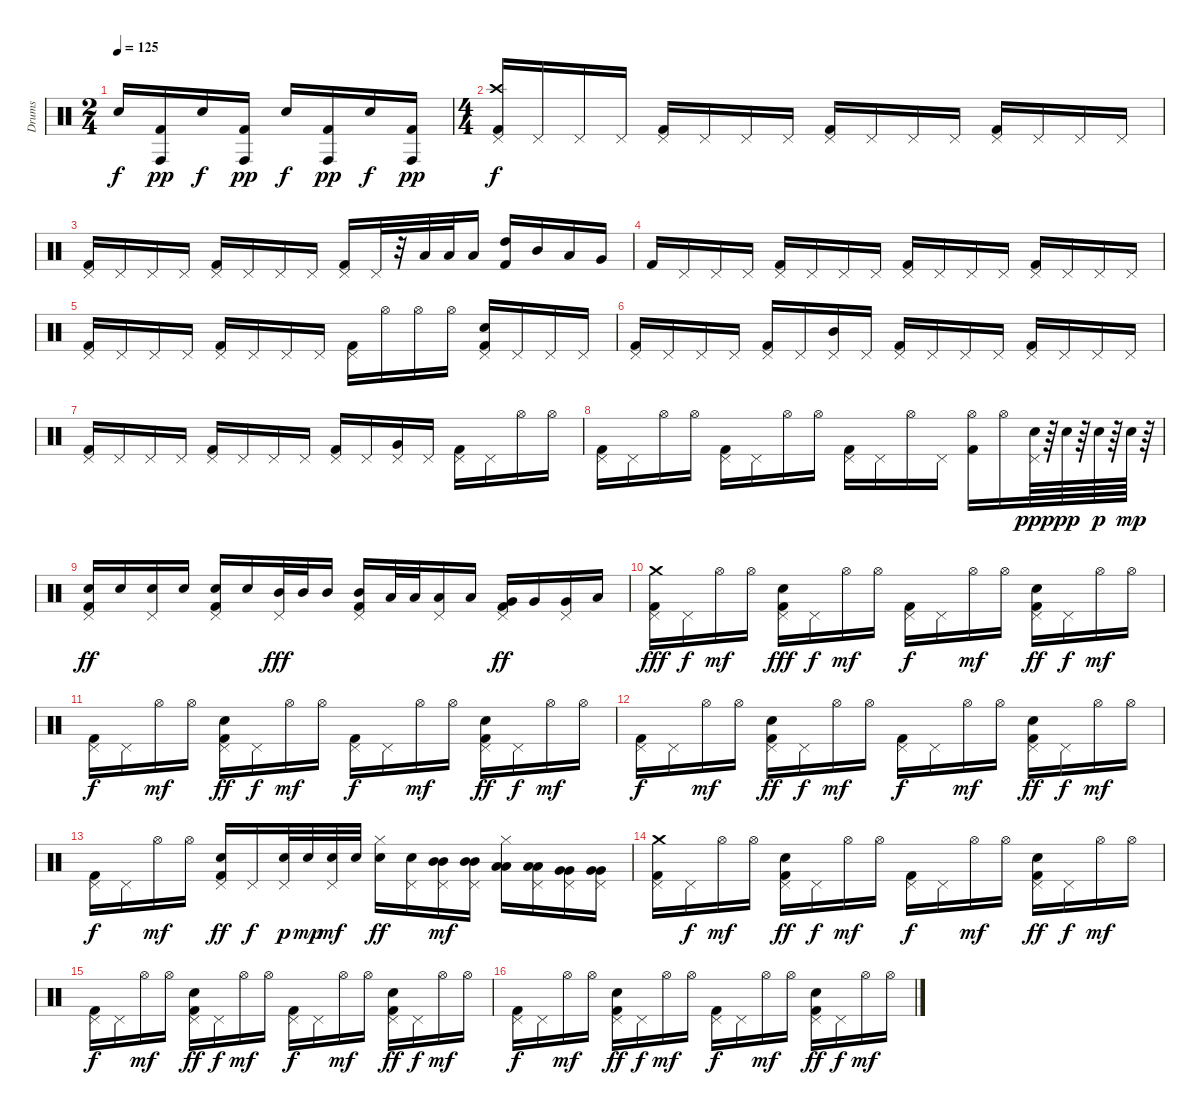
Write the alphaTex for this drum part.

\track ("Drums" "Drums") {instrument percussion}
\staff {score}
\articulation defaults
\ts (2 4)
\tempo 125
\clef neutral
\ks c "Electric Snare (hit)".16{dy f balance 8}
("Conga high (hit)" "Kick (hit) 2").16{dy pp balance 16} "Electric Snare (hit)".16{dy f balance 8} ("Conga high (hit)" "Kick (hit) 2").16{dy pp balance 16} "Electric Snare (hit)".16{dy f balance 8} ("Conga high (hit)" "Kick (hit) 2").16{dy pp balance 16} "Electric Snare (hit)".16{dy f balance 8} ("Conga high (hit)" "Kick (hit) 2").16{dy pp balance 16} |
\ts (4 4)
("Crash high (hit)" "Pedal Hi-Hat (hit)" "Kick (hit) 2").16{dy f balance 8} "Pedal Hi-Hat (hit)".16 "Pedal Hi-Hat (hit)".16 "Pedal Hi-Hat (hit)".16 ("Pedal Hi-Hat (hit)" "Kick (hit) 2").16 "Pedal Hi-Hat (hit)".16 "Pedal Hi-Hat (hit)".16 "Pedal Hi-Hat (hit)".16 ("Pedal Hi-Hat (hit)" "Kick (hit) 2").16 "Pedal Hi-Hat (hit)".16 "Pedal Hi-Hat (hit)".16 "Pedal Hi-Hat (hit)".16 ("Pedal Hi-Hat (hit)" "Kick (hit) 2").16 "Pedal Hi-Hat (hit)".16 "Pedal Hi-Hat (hit)".16 "Pedal Hi-Hat (hit)".16 |
("Pedal Hi-Hat (hit)" "Kick (hit) 2").16 "Pedal Hi-Hat (hit)".16 "Pedal Hi-Hat (hit)".16 "Pedal Hi-Hat (hit)".16 ("Pedal Hi-Hat (hit)" "Kick (hit) 2").16 "Pedal Hi-Hat (hit)".16 "Pedal Hi-Hat (hit)".16 "Pedal Hi-Hat (hit)".16 ("Pedal Hi-Hat (hit)" "Kick (hit) 2").16 "Pedal Hi-Hat (hit)".32 r.32 "Low Tom (hit)".32 "Low Tom (hit)".32 "Low Tom (hit)".16 ("High Tom (hit)" "Kick (hit) 2").16 "Mid Tom (hit)".16 "Low Tom (hit)".16 "Very Low Tom (hit)".16 |
"Kick (hit) 2".16 "Pedal Hi-Hat (hit)".16 "Pedal Hi-Hat (hit)".16 "Pedal Hi-Hat (hit)".16 ("Pedal Hi-Hat (hit)" "Kick (hit) 2").16 "Pedal Hi-Hat (hit)".16 "Pedal Hi-Hat (hit)".16 "Pedal Hi-Hat (hit)".16 ("Pedal Hi-Hat (hit)" "Kick (hit) 2").16 "Pedal Hi-Hat (hit)".16 "Pedal Hi-Hat (hit)".16 "Pedal Hi-Hat (hit)".16 ("Pedal Hi-Hat (hit)" "Kick (hit) 2").16 "Pedal Hi-Hat (hit)".16 "Pedal Hi-Hat (hit)".16 "Pedal Hi-Hat (hit)".16 |
("Pedal Hi-Hat (hit)" "Kick (hit) 2").16 "Pedal Hi-Hat (hit)".16 "Pedal Hi-Hat (hit)".16 "Pedal Hi-Hat (hit)".16 ("Pedal Hi-Hat (hit)" "Kick (hit) 2").16 "Pedal Hi-Hat (hit)".16 "Pedal Hi-Hat (hit)".16 "Pedal Hi-Hat (hit)".16 ("Pedal Hi-Hat (hit)" "Kick (hit) 2").16 "Hi-Hat (open)".16 "Hi-Hat (open)".16 "Hi-Hat (open)".16 ("Pedal Hi-Hat (hit)" "Electric Snare (hit)" "Kick (hit) 2").16 "Pedal Hi-Hat (hit)".16 "Pedal Hi-Hat (hit)".16 "Pedal Hi-Hat (hit)".16 |
("Pedal Hi-Hat (hit)" "Kick (hit) 2").16 "Pedal Hi-Hat (hit)".16 "Pedal Hi-Hat (hit)".16 "Pedal Hi-Hat (hit)".16 ("Pedal Hi-Hat (hit)" "Kick (hit) 2").16 "Pedal Hi-Hat (hit)".16 ("Pedal Hi-Hat (hit)" "Mid Tom (hit)").16 "Pedal Hi-Hat (hit)".16 ("Pedal Hi-Hat (hit)" "Kick (hit) 2").16 "Pedal Hi-Hat (hit)".16 "Pedal Hi-Hat (hit)".16 "Pedal Hi-Hat (hit)".16 ("Pedal Hi-Hat (hit)" "Kick (hit) 2").16 "Pedal Hi-Hat (hit)".16 "Pedal Hi-Hat (hit)".16 "Pedal Hi-Hat (hit)".16 |
("Pedal Hi-Hat (hit)" "Kick (hit) 2").16 "Pedal Hi-Hat (hit)".16 "Pedal Hi-Hat (hit)".16 "Pedal Hi-Hat (hit)".16 ("Pedal Hi-Hat (hit)" "Kick (hit) 2").16 "Pedal Hi-Hat (hit)".16 "Pedal Hi-Hat (hit)".16 "Pedal Hi-Hat (hit)".16 ("Pedal Hi-Hat (hit)" "Kick (hit) 2").16 "Pedal Hi-Hat (hit)".16 ("Pedal Hi-Hat (hit)" "Very Low Tom (hit)").16 "Pedal Hi-Hat (hit)".16 ("Pedal Hi-Hat (hit)" "Kick (hit) 2").16 "Pedal Hi-Hat (hit)".16 "Hi-Hat (open)".16 "Hi-Hat (open)".16 |
("Pedal Hi-Hat (hit)" "Kick (hit) 2").16 "Pedal Hi-Hat (hit)".16 "Hi-Hat (open)".16 "Hi-Hat (open)".16 ("Pedal Hi-Hat (hit)" "Kick (hit) 2").16 "Pedal Hi-Hat (hit)".16 "Hi-Hat (open)".16 "Hi-Hat (open)".16 ("Pedal Hi-Hat (hit)" "Kick (hit) 2").16 "Pedal Hi-Hat (hit)".16 "Hi-Hat (open)".16 "Pedal Hi-Hat (hit)".16 ("Hi-Hat (open)" "Kick (hit) 2").16 "Hi-Hat (open)".16 ("Pedal Hi-Hat (hit)" "Electric Snare (hit)").64{dy ppp} r.64 "Electric Snare (hit)".64{dy pp} r.64 "Electric Snare (hit)".64{dy p} r.64 "Electric Snare (hit)".64{dy mp} r.64 |
("Pedal Hi-Hat (hit)" "Electric Snare (hit)" "Kick (hit) 2").16{dy ff} "Electric Snare (hit)".16 ("Pedal Hi-Hat (hit)" "Electric Snare (hit)").16 "Electric Snare (hit)".16 ("Pedal Hi-Hat (hit)" "Electric Snare (hit)" "Kick (hit) 2").16 "Electric Snare (hit)".16 ("Pedal Hi-Hat (hit)" "Mid Tom (hit)").32{dy fff} "Mid Tom (hit)".32 "Mid Tom (hit)".16 ("Pedal Hi-Hat (hit)" "Mid Tom (hit)" "Kick (hit) 2").16 "Low Tom (hit)".32 "Low Tom (hit)".32 ("Pedal Hi-Hat (hit)" "Low Tom (hit)").16 "Low Tom (hit)".16 ("Pedal Hi-Hat (hit)" "Very Low Tom (hit)" "Kick (hit) 2").16{dy ff} "Very Low Tom (hit)".16 ("Pedal Hi-Hat (hit)" "Very Low Tom (hit)").16 "Low Floor Tom (hit)".16 |
("Crash medium (hit)" "Pedal Hi-Hat (hit)" "Kick (hit) 2").16{dy fff} "Pedal Hi-Hat (hit)".16{dy f} "Hi-Hat (open)".16{dy mf} "Hi-Hat (open)".16 ("Pedal Hi-Hat (hit)" "Electric Snare (hit)" "Kick (hit) 2").16{dy fff} "Pedal Hi-Hat (hit)".16{dy f} "Hi-Hat (open)".16{dy mf} "Hi-Hat (open)".16 ("Pedal Hi-Hat (hit)" "Kick (hit) 2").16{dy f} "Pedal Hi-Hat (hit)".16 "Hi-Hat (open)".16{dy mf} "Hi-Hat (open)".16 ("Pedal Hi-Hat (hit)" "Electric Snare (hit)" "Kick (hit) 2").16{dy ff} "Pedal Hi-Hat (hit)".16{dy f} "Hi-Hat (open)".16{dy mf} "Hi-Hat (open)".16 |
("Pedal Hi-Hat (hit)" "Kick (hit) 2").16{dy f} "Pedal Hi-Hat (hit)".16 "Hi-Hat (open)".16{dy mf} "Hi-Hat (open)".16 ("Pedal Hi-Hat (hit)" "Electric Snare (hit)" "Kick (hit) 2").16{dy ff} "Pedal Hi-Hat (hit)".16{dy f} "Hi-Hat (open)".16{dy mf} "Hi-Hat (open)".16 ("Pedal Hi-Hat (hit)" "Kick (hit) 2").16{dy f} "Pedal Hi-Hat (hit)".16 "Hi-Hat (open)".16{dy mf} "Hi-Hat (open)".16 ("Pedal Hi-Hat (hit)" "Electric Snare (hit)" "Kick (hit) 2").16{dy ff} "Pedal Hi-Hat (hit)".16{dy f} "Hi-Hat (open)".16{dy mf} "Hi-Hat (open)".16 |
("Pedal Hi-Hat (hit)" "Kick (hit) 2").16{dy f} "Pedal Hi-Hat (hit)".16 "Hi-Hat (open)".16{dy mf} "Hi-Hat (open)".16 ("Pedal Hi-Hat (hit)" "Electric Snare (hit)" "Kick (hit) 2").16{dy ff} "Pedal Hi-Hat (hit)".16{dy f} "Hi-Hat (open)".16{dy mf} "Hi-Hat (open)".16 ("Pedal Hi-Hat (hit)" "Kick (hit) 2").16{dy f} "Pedal Hi-Hat (hit)".16 "Hi-Hat (open)".16{dy mf} "Hi-Hat (open)".16 ("Pedal Hi-Hat (hit)" "Electric Snare (hit)" "Kick (hit) 2").16{dy ff} "Pedal Hi-Hat (hit)".16{dy f} "Hi-Hat (open)".16{dy mf} "Hi-Hat (open)".16 |
("Pedal Hi-Hat (hit)" "Kick (hit) 2").16{dy f} "Pedal Hi-Hat (hit)".16 "Hi-Hat (open)".16{dy mf} "Hi-Hat (open)".16 ("Pedal Hi-Hat (hit)" "Electric Snare (hit)" "Kick (hit) 2").16{dy ff} "Pedal Hi-Hat (hit)".16{dy f} ("Pedal Hi-Hat (hit)" "Electric Snare (hit)").32{dy p} "Electric Snare (hit)".32{dy mp} ("Pedal Hi-Hat (hit)" "Electric Snare (hit)").32{dy mf} "Electric Snare (hit)".32 ("Hi-Hat (closed)" "Electric Snare (hit)").16{dy ff} ("Pedal Hi-Hat (hit)" "Electric Snare (hit)").16 ("Pedal Hi-Hat (hit)" "Mid Tom (hit)" "Mid Tom (hit)").16{dy mf} ("Pedal Hi-Hat (hit)" "Mid Tom (hit)" "Mid Tom (hit)").16 ("Hi-Hat (closed)" "Low Tom (hit)" "Low Tom (hit)").16 ("Pedal Hi-Hat (hit)" "Low Tom (hit)" "Low Tom (hit)").16 ("Pedal Hi-Hat (hit)" "Very Low Tom (hit)" "Very Low Tom (hit)").16 ("Pedal Hi-Hat (hit)" "Very Low Tom (hit)" "Very Low Tom (hit)").16 |
("Crash medium (hit)" "Pedal Hi-Hat (hit)" "Kick (hit) 2").16 "Pedal Hi-Hat (hit)".16{dy f} "Hi-Hat (open)".16{dy mf} "Hi-Hat (open)".16 ("Pedal Hi-Hat (hit)" "Electric Snare (hit)" "Kick (hit) 2").16{dy ff} "Pedal Hi-Hat (hit)".16{dy f} "Hi-Hat (open)".16{dy mf} "Hi-Hat (open)".16 ("Pedal Hi-Hat (hit)" "Kick (hit) 2").16{dy f} "Pedal Hi-Hat (hit)".16 "Hi-Hat (open)".16{dy mf} "Hi-Hat (open)".16 ("Pedal Hi-Hat (hit)" "Electric Snare (hit)" "Kick (hit) 2").16{dy ff} "Pedal Hi-Hat (hit)".16{dy f} "Hi-Hat (open)".16{dy mf} "Hi-Hat (open)".16 |
("Pedal Hi-Hat (hit)" "Kick (hit) 2").16{dy f} "Pedal Hi-Hat (hit)".16 "Hi-Hat (open)".16{dy mf} "Hi-Hat (open)".16 ("Pedal Hi-Hat (hit)" "Electric Snare (hit)" "Kick (hit) 2").16{dy ff} "Pedal Hi-Hat (hit)".16{dy f} "Hi-Hat (open)".16{dy mf} "Hi-Hat (open)".16 ("Pedal Hi-Hat (hit)" "Kick (hit) 2").16{dy f} "Pedal Hi-Hat (hit)".16 "Hi-Hat (open)".16{dy mf} "Hi-Hat (open)".16 ("Pedal Hi-Hat (hit)" "Electric Snare (hit)" "Kick (hit) 2").16{dy ff} "Pedal Hi-Hat (hit)".16{dy f} "Hi-Hat (open)".16{dy mf} "Hi-Hat (open)".16 |
("Pedal Hi-Hat (hit)" "Kick (hit) 2").16{dy f} "Pedal Hi-Hat (hit)".16 "Hi-Hat (open)".16{dy mf} "Hi-Hat (open)".16 ("Pedal Hi-Hat (hit)" "Electric Snare (hit)" "Kick (hit) 2").16{dy ff} "Pedal Hi-Hat (hit)".16{dy f} "Hi-Hat (open)".16{dy mf} "Hi-Hat (open)".16 ("Pedal Hi-Hat (hit)" "Kick (hit) 2").16{dy f} "Pedal Hi-Hat (hit)".16 "Hi-Hat (open)".16{dy mf} "Hi-Hat (open)".16 ("Pedal Hi-Hat (hit)" "Electric Snare (hit)" "Kick (hit) 2").16{dy ff} "Pedal Hi-Hat (hit)".16{dy f} "Hi-Hat (open)".16{dy mf} "Hi-Hat (open)".16
